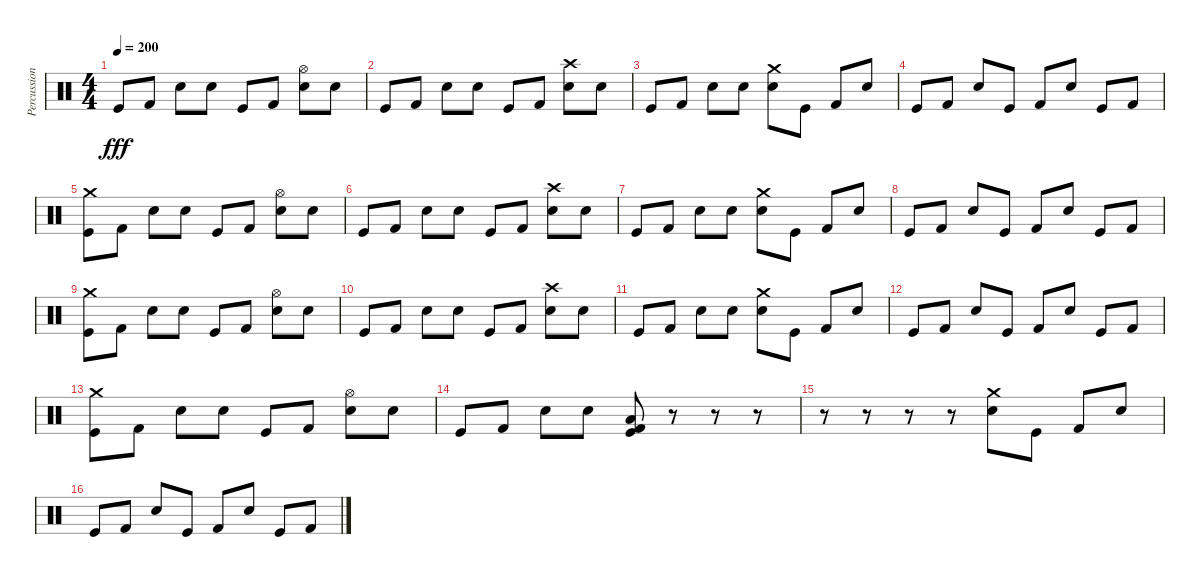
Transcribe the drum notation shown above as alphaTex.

\track ("Percussion" "Percussion") {instrument percussion}
\staff {score}
\articulation defaults
\ts (4 4)
\tempo 200
\clef neutral
\ks c "Kick (hit)".8{dy fff} "Kick (hit) 2".8 "Snare (hit) 2".8 "Snare (hit) 2".8 "Kick (hit)".8 "Kick (hit) 2".8
("Hi-Hat (open)" "Snare (hit) 2").8 "Snare (hit) 2".8 |
"Kick (hit)".8 "Kick (hit) 2".8 "Snare (hit) 2".8 "Snare (hit) 2".8 "Kick (hit)".8 "Kick (hit) 2".8 ("Crash high (hit)" "Snare (hit) 2").8 "Snare (hit) 2".8 |
"Kick (hit)".8 "Kick (hit) 2".8 "Snare (hit) 2".8 "Snare (hit) 2".8 ("Crash medium (hit)" "Snare (hit) 2").8 "Kick (hit)".8 "Kick (hit) 2".8 "Snare (hit) 2".8 |
"Kick (hit)".8 "Kick (hit) 2".8 "Snare (hit) 2".8 "Kick (hit)".8 "Kick (hit) 2".8 "Snare (hit) 2".8 "Kick (hit)".8 "Kick (hit) 2".8 |
("Crash medium (hit)" "Kick (hit)").8 "Kick (hit) 2".8 "Snare (hit) 2".8 "Snare (hit) 2".8 "Kick (hit)".8 "Kick (hit) 2".8 ("Hi-Hat (open)" "Snare (hit) 2").8 "Snare (hit) 2".8 |
"Kick (hit)".8 "Kick (hit) 2".8 "Snare (hit) 2".8 "Snare (hit) 2".8 "Kick (hit)".8 "Kick (hit) 2".8 ("Crash high (hit)" "Snare (hit) 2").8 "Snare (hit) 2".8 |
"Kick (hit)".8 "Kick (hit) 2".8 "Snare (hit) 2".8 "Snare (hit) 2".8 ("Crash medium (hit)" "Snare (hit) 2").8 "Kick (hit)".8 "Kick (hit) 2".8 "Snare (hit) 2".8 |
"Kick (hit)".8 "Kick (hit) 2".8 "Snare (hit) 2".8 "Kick (hit)".8 "Kick (hit) 2".8 "Snare (hit) 2".8 "Kick (hit)".8 "Kick (hit) 2".8 |
("Crash medium (hit)" "Kick (hit)").8 "Kick (hit) 2".8 "Snare (hit) 2".8 "Snare (hit) 2".8 "Kick (hit)".8 "Kick (hit) 2".8 ("Hi-Hat (open)" "Snare (hit) 2").8 "Snare (hit) 2".8 |
"Kick (hit)".8 "Kick (hit) 2".8 "Snare (hit) 2".8 "Snare (hit) 2".8 "Kick (hit)".8 "Kick (hit) 2".8 ("Crash high (hit)" "Snare (hit) 2").8 "Snare (hit) 2".8 |
"Kick (hit)".8 "Kick (hit) 2".8 "Snare (hit) 2".8 "Snare (hit) 2".8 ("Crash medium (hit)" "Snare (hit) 2").8 "Kick (hit)".8 "Kick (hit) 2".8 "Snare (hit) 2".8 |
"Kick (hit)".8 "Kick (hit) 2".8 "Snare (hit) 2".8 "Kick (hit)".8 "Kick (hit) 2".8 "Snare (hit) 2".8 "Kick (hit)".8 "Kick (hit) 2".8 |
("Crash medium (hit)" "Kick (hit)").8 "Kick (hit) 2".8 "Snare (hit) 2".8 "Snare (hit) 2".8 "Kick (hit)".8 "Kick (hit) 2".8 ("Hi-Hat (open)" "Snare (hit) 2").8 "Snare (hit) 2".8 |
"Kick (hit)".8 "Kick (hit) 2".8 "Snare (hit) 2".8 "Snare (hit) 2".8 ("Low Floor Tom (hit)" "Kick (hit) 2" "Kick (hit)").8 r.8 r.8 r.8 |
r.8 r.8 r.8 r.8 ("Crash medium (hit)" "Snare (hit) 2").8 "Kick (hit)".8 "Kick (hit) 2".8 "Snare (hit) 2".8 |
"Kick (hit)".8 "Kick (hit) 2".8 "Snare (hit) 2".8 "Kick (hit)".8 "Kick (hit) 2".8 "Snare (hit) 2".8 "Kick (hit)".8 "Kick (hit) 2".8
